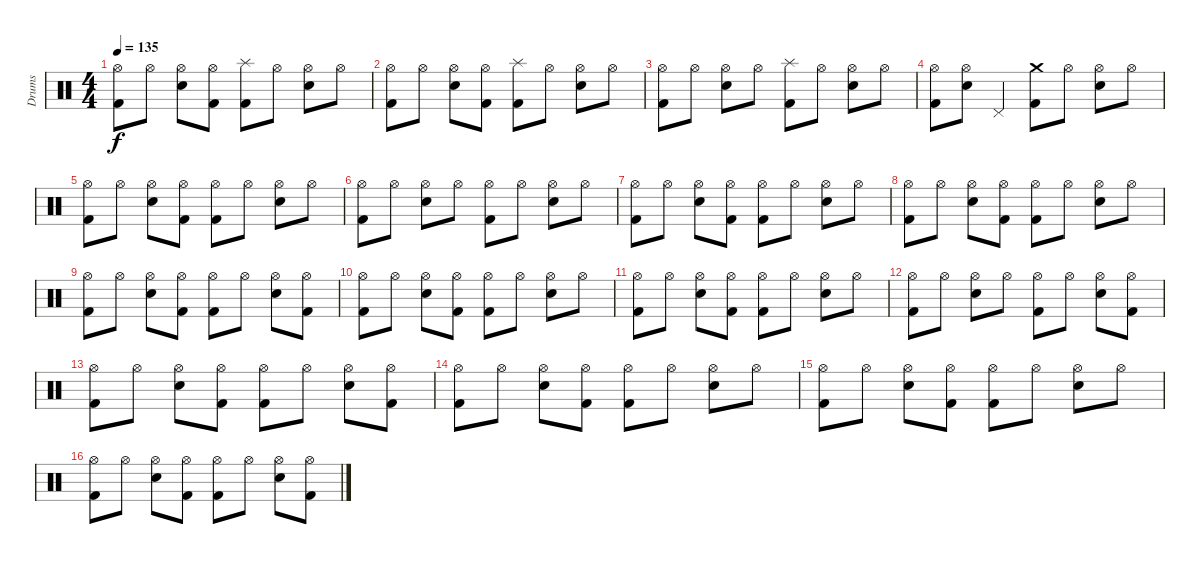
\track ("Drums" "Drums") {instrument percussion}
\staff {score}
\articulation defaults
\ts (4 4)
\tempo 135
\clef neutral
\ks c
("Hi-Hat (open)" "Kick (hit) 2").8{dy f} "Hi-Hat (open)".8 ("Hi-Hat (open)" "Electric Snare (hit)").8 ("Hi-Hat (open)" "Kick (hit) 2").8 ("Splash (hit)" "Kick (hit) 2").8 "Hi-Hat (open)".8 ("Hi-Hat (open)" "Electric Snare (hit)").8 "Hi-Hat (open)".8 |
("Hi-Hat (open)" "Kick (hit) 2").8 "Hi-Hat (open)".8 ("Hi-Hat (open)" "Electric Snare (hit)").8 ("Hi-Hat (open)" "Kick (hit) 2").8 ("Splash (hit)" "Kick (hit) 2").8 "Hi-Hat (open)".8 ("Hi-Hat (open)" "Electric Snare (hit)").8 "Hi-Hat (open)".8 |
("Hi-Hat (open)" "Kick (hit) 2").8 "Hi-Hat (open)".8 ("Hi-Hat (open)" "Electric Snare (hit)").8 "Hi-Hat (open)".8 ("Splash (hit)" "Kick (hit) 2").8 "Hi-Hat (open)".8 ("Hi-Hat (open)" "Electric Snare (hit)").8 "Hi-Hat (open)".8 |
("Hi-Hat (open)" "Kick (hit) 2").8 ("Hi-Hat (open)" "Electric Snare (hit)").8 "Pedal Hi-Hat (hit)".4 ("Crash medium (hit)" "Kick (hit) 2").8 "Hi-Hat (open)".8 ("Hi-Hat (open)" "Electric Snare (hit)").8 "Hi-Hat (open)".8 |
("Hi-Hat (open)" "Kick (hit) 2").8 "Hi-Hat (open)".8 ("Hi-Hat (open)" "Electric Snare (hit)").8 ("Hi-Hat (open)" "Kick (hit) 2").8 ("Hi-Hat (open)" "Kick (hit) 2").8 "Hi-Hat (open)".8 ("Hi-Hat (open)" "Electric Snare (hit)").8 "Hi-Hat (open)".8 |
("Hi-Hat (open)" "Kick (hit) 2").8 "Hi-Hat (open)".8 ("Hi-Hat (open)" "Electric Snare (hit)").8 "Hi-Hat (open)".8 ("Hi-Hat (open)" "Kick (hit) 2").8 "Hi-Hat (open)".8 ("Hi-Hat (open)" "Electric Snare (hit)").8 "Hi-Hat (open)".8 |
("Hi-Hat (open)" "Kick (hit) 2").8 "Hi-Hat (open)".8 ("Hi-Hat (open)" "Electric Snare (hit)").8 ("Hi-Hat (open)" "Kick (hit) 2").8 ("Hi-Hat (open)" "Kick (hit) 2").8 "Hi-Hat (open)".8 ("Hi-Hat (open)" "Electric Snare (hit)").8 "Hi-Hat (open)".8 |
("Hi-Hat (open)" "Kick (hit) 2").8 "Hi-Hat (open)".8 ("Hi-Hat (open)" "Electric Snare (hit)").8 ("Hi-Hat (open)" "Kick (hit) 2").8 ("Hi-Hat (open)" "Kick (hit) 2").8 "Hi-Hat (open)".8 ("Hi-Hat (open)" "Electric Snare (hit)").8 "Hi-Hat (open)".8 |
("Hi-Hat (open)" "Kick (hit) 2").8 "Hi-Hat (open)".8 ("Hi-Hat (open)" "Electric Snare (hit)").8 ("Hi-Hat (open)" "Kick (hit) 2").8 ("Hi-Hat (open)" "Kick (hit) 2").8 "Hi-Hat (open)".8 ("Hi-Hat (open)" "Electric Snare (hit)").8 ("Hi-Hat (open)" "Kick (hit) 2").8 |
("Hi-Hat (open)" "Kick (hit) 2").8 "Hi-Hat (open)".8 ("Hi-Hat (open)" "Electric Snare (hit)").8 ("Hi-Hat (open)" "Kick (hit) 2").8 ("Hi-Hat (open)" "Kick (hit) 2").8 "Hi-Hat (open)".8 ("Hi-Hat (open)" "Electric Snare (hit)").8 "Hi-Hat (open)".8 |
("Hi-Hat (open)" "Kick (hit) 2").8 "Hi-Hat (open)".8 ("Hi-Hat (open)" "Electric Snare (hit)").8 ("Hi-Hat (open)" "Kick (hit) 2").8 ("Hi-Hat (open)" "Kick (hit) 2").8 "Hi-Hat (open)".8 ("Hi-Hat (open)" "Electric Snare (hit)").8 "Hi-Hat (open)".8 |
("Hi-Hat (open)" "Kick (hit) 2").8 "Hi-Hat (open)".8 ("Hi-Hat (open)" "Electric Snare (hit)").8 "Hi-Hat (open)".8 ("Hi-Hat (open)" "Kick (hit) 2").8 "Hi-Hat (open)".8 ("Hi-Hat (open)" "Electric Snare (hit)").8 ("Hi-Hat (open)" "Kick (hit) 2").8 |
("Hi-Hat (open)" "Kick (hit) 2").8 "Hi-Hat (open)".8 ("Hi-Hat (open)" "Electric Snare (hit)").8 ("Hi-Hat (open)" "Kick (hit) 2").8 ("Hi-Hat (open)" "Kick (hit) 2").8 "Hi-Hat (open)".8 ("Hi-Hat (open)" "Electric Snare (hit)").8 ("Hi-Hat (open)" "Kick (hit) 2").8 |
("Hi-Hat (open)" "Kick (hit) 2").8 "Hi-Hat (open)".8 ("Hi-Hat (open)" "Electric Snare (hit)").8 ("Hi-Hat (open)" "Kick (hit) 2").8 ("Hi-Hat (open)" "Kick (hit) 2").8 "Hi-Hat (open)".8 ("Hi-Hat (open)" "Electric Snare (hit)").8 "Hi-Hat (open)".8 |
("Hi-Hat (open)" "Kick (hit) 2").8 "Hi-Hat (open)".8 ("Hi-Hat (open)" "Electric Snare (hit)").8 ("Hi-Hat (open)" "Kick (hit) 2").8 ("Hi-Hat (open)" "Kick (hit) 2").8 "Hi-Hat (open)".8 ("Hi-Hat (open)" "Electric Snare (hit)").8 "Hi-Hat (open)".8 |
("Hi-Hat (open)" "Kick (hit) 2").8 "Hi-Hat (open)".8 ("Hi-Hat (open)" "Electric Snare (hit)").8 ("Hi-Hat (open)" "Kick (hit) 2").8 ("Hi-Hat (open)" "Kick (hit) 2").8 "Hi-Hat (open)".8 ("Hi-Hat (open)" "Electric Snare (hit)").8 ("Hi-Hat (open)" "Kick (hit) 2").8
